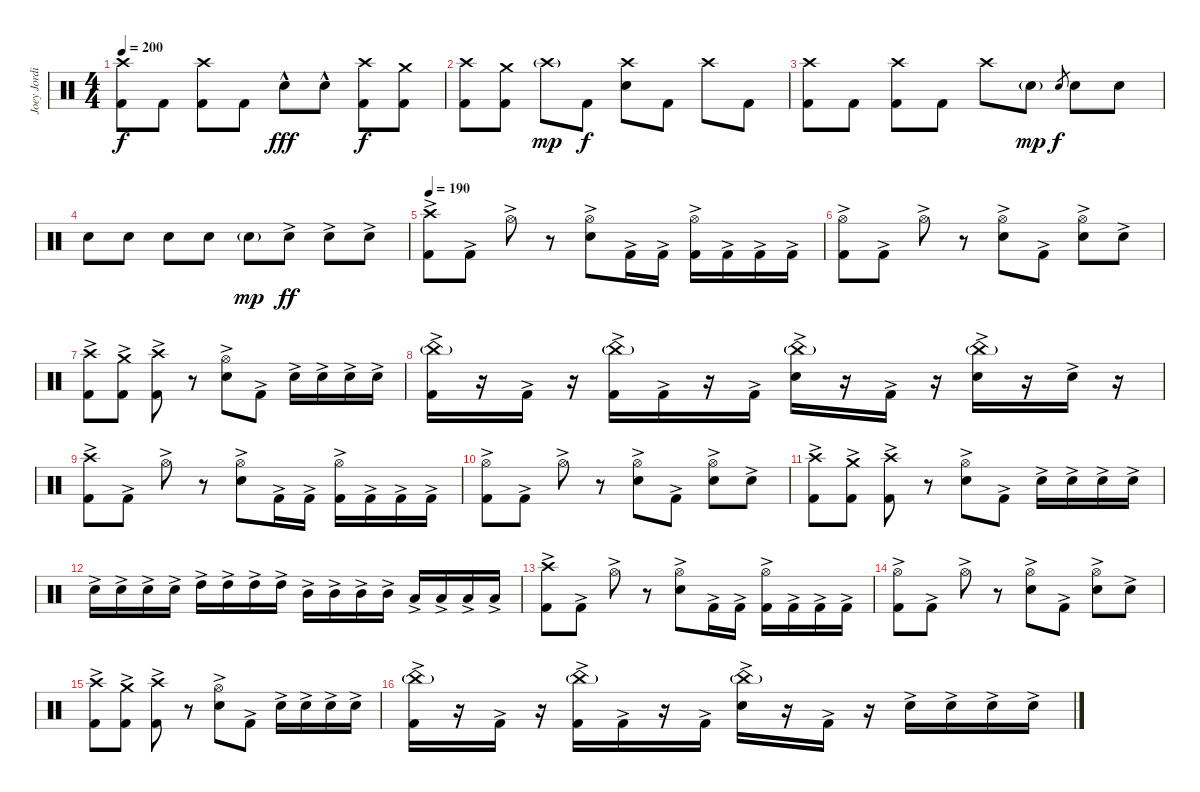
\track ("Joey Jordison" "Joey Jordi") {instrument percussion}
\staff {score}
\articulation defaults
\ts (4 4)
\tempo 200
\clef neutral
\ks c
("Crash high (hit)" "Kick (hit) 2").8{dy f} "Kick (hit) 2".8 ("Crash high (hit)" "Kick (hit) 2").8 "Kick (hit) 2".8 "Electric Snare (hit)"{hac}.8{dy fff} "Electric Snare (hit)"{hac}.8 ("Crash high (hit)" "Kick (hit) 2").8{dy f} ("Crash medium (hit)" "Kick (hit) 2").8 |
("Crash high (hit)" "Kick (hit) 2").8 ("Crash medium (hit)" "Kick (hit) 2").8 "Crash high (hit)"{g}.8{dy mp} "Kick (hit) 2".8{dy f} ("Crash high (hit)" "Electric Snare (hit)").8 "Kick (hit) 2".8 "Crash high (hit)".8 "Kick (hit) 2".8 |
("Crash high (hit)" "Kick (hit) 2").8 "Kick (hit) 2".8 ("Crash high (hit)" "Kick (hit) 2").8 "Kick (hit) 2".8 "Crash high (hit)".8 "Electric Snare (hit)"{g}.8{dy mp} "Electric Snare (hit)".8{gr dy f} "Electric Snare (hit)".8 "Electric Snare (hit)".8 |
"Electric Snare (hit)".8 "Electric Snare (hit)".8 "Electric Snare (hit)".8 "Electric Snare (hit)".8 "Electric Snare (hit)"{g}.8{dy mp} "Electric Snare (hit)"{ac}.8{dy ff} "Electric Snare (hit)"{ac}.8 "Electric Snare (hit)"{ac}.8 |
\tempo 190
("Crash high (hit)"{ac} "Kick (hit) 2"{ac}).8 "Kick (hit) 2"{ac}.8 "Hi-Hat (open)"{ac}.8 r.8 ("Hi-Hat (open)"{ac} "Electric Snare (hit)"{ac}).8 "Kick (hit) 2"{ac}.16 "Kick (hit) 2"{ac}.16 ("Hi-Hat (open)"{ac} "Kick (hit) 2"{ac}).16 "Kick (hit) 2"{ac}.16 "Kick (hit) 2"{ac}.16 "Kick (hit) 2"{ac}.16 |
("Hi-Hat (open)"{ac} "Kick (hit) 2"{ac}).8 "Kick (hit) 2"{ac}.8 "Hi-Hat (open)"{ac}.8 r.8 ("Hi-Hat (open)"{ac} "Electric Snare (hit)"{ac}).8 "Kick (hit) 2"{ac}.8 ("Hi-Hat (open)"{ac} "Electric Snare (hit)"{ac}).8 "Electric Snare (hit)"{ac}.8 |
("Crash high (hit)"{ac} "Kick (hit) 2"{ac}).8 ("Crash medium (hit)"{ac} "Kick (hit) 2"{ac}).8 ("Crash high (hit)"{ac} "Kick (hit) 2"{ac}).8 r.8 ("Hi-Hat (open)"{ac} "Electric Snare (hit)"{ac}).8 "Kick (hit) 2"{ac}.8 "Electric Snare (hit)"{ac}.16 "Electric Snare (hit)"{ac}.16 "Electric Snare (hit)"{ac}.16 "Electric Snare (hit)"{ac}.16 |
("China (hit)"{g} "Kick (hit) 2"{ac}).16 r.16 "Kick (hit) 2"{ac}.16 r.16 ("China (hit)"{g} "Kick (hit) 2"{ac}).16 "Kick (hit) 2"{ac}.16 r.16 "Kick (hit) 2"{ac}.16 ("China (hit)"{g} "Electric Snare (hit)"{ac}).16 r.16 "Kick (hit) 2"{ac}.16 r.16 ("China (hit)"{g} "Electric Snare (hit)"{ac}).16 r.16 "Electric Snare (hit)"{ac}.16 r.16 |
("Crash high (hit)"{ac} "Kick (hit) 2"{ac}).8 "Kick (hit) 2"{ac}.8 "Hi-Hat (open)"{ac}.8 r.8 ("Hi-Hat (open)"{ac} "Electric Snare (hit)"{ac}).8 "Kick (hit) 2"{ac}.16 "Kick (hit) 2"{ac}.16 ("Hi-Hat (open)"{ac} "Kick (hit) 2"{ac}).16 "Kick (hit) 2"{ac}.16 "Kick (hit) 2"{ac}.16 "Kick (hit) 2"{ac}.16 |
("Hi-Hat (open)"{ac} "Kick (hit) 2"{ac}).8 "Kick (hit) 2"{ac}.8 "Hi-Hat (open)"{ac}.8 r.8 ("Hi-Hat (open)"{ac} "Electric Snare (hit)"{ac}).8 "Kick (hit) 2"{ac}.8 ("Hi-Hat (open)"{ac} "Electric Snare (hit)"{ac}).8 "Electric Snare (hit)"{ac}.8 |
("Crash high (hit)"{ac} "Kick (hit) 2"{ac}).8 ("Crash medium (hit)"{ac} "Kick (hit) 2"{ac}).8 ("Crash high (hit)"{ac} "Kick (hit) 2"{ac}).8 r.8 ("Hi-Hat (open)"{ac} "Electric Snare (hit)"{ac}).8 "Kick (hit) 2"{ac}.8 "Electric Snare (hit)"{ac}.16 "Electric Snare (hit)"{ac}.16 "Electric Snare (hit)"{ac}.16 "Electric Snare (hit)"{ac}.16 |
"Electric Snare (hit)"{ac}.16 "Electric Snare (hit)"{ac}.16 "Electric Snare (hit)"{ac}.16 "Electric Snare (hit)"{ac}.16 "High Tom (hit)"{ac}.16 "High Tom (hit)"{ac}.16 "High Tom (hit)"{ac}.16 "High Tom (hit)"{ac}.16 "Mid Tom (hit)"{ac}.16 "Mid Tom (hit)"{ac}.16 "Mid Tom (hit)"{ac}.16 "Mid Tom (hit)"{ac}.16 "Low Tom (hit)"{ac}.16 "Low Tom (hit)"{ac}.16 "Low Tom (hit)"{ac}.16 "Low Tom (hit)"{ac}.16 |
("Crash high (hit)"{ac} "Kick (hit) 2"{ac}).8 "Kick (hit) 2"{ac}.8 "Hi-Hat (open)"{ac}.8 r.8 ("Hi-Hat (open)"{ac} "Electric Snare (hit)"{ac}).8 "Kick (hit) 2"{ac}.16 "Kick (hit) 2"{ac}.16 ("Hi-Hat (open)"{ac} "Kick (hit) 2"{ac}).16 "Kick (hit) 2"{ac}.16 "Kick (hit) 2"{ac}.16 "Kick (hit) 2"{ac}.16 |
("Hi-Hat (open)"{ac} "Kick (hit) 2"{ac}).8 "Kick (hit) 2"{ac}.8 "Hi-Hat (open)"{ac}.8 r.8 ("Hi-Hat (open)"{ac} "Electric Snare (hit)"{ac}).8 "Kick (hit) 2"{ac}.8 ("Hi-Hat (open)"{ac} "Electric Snare (hit)"{ac}).8 "Electric Snare (hit)"{ac}.8 |
("Crash high (hit)"{ac} "Kick (hit) 2"{ac}).8 ("Crash medium (hit)"{ac} "Kick (hit) 2"{ac}).8 ("Crash high (hit)"{ac} "Kick (hit) 2"{ac}).8 r.8 ("Hi-Hat (open)"{ac} "Electric Snare (hit)"{ac}).8 "Kick (hit) 2"{ac}.8 "Electric Snare (hit)"{ac}.16 "Electric Snare (hit)"{ac}.16 "Electric Snare (hit)"{ac}.16 "Electric Snare (hit)"{ac}.16 |
("China (hit)"{g} "Kick (hit) 2"{ac}).16 r.16 "Kick (hit) 2"{ac}.16 r.16 ("China (hit)"{g} "Kick (hit) 2"{ac}).16 "Kick (hit) 2"{ac}.16 r.16 "Kick (hit) 2"{ac}.16 ("China (hit)"{g} "Electric Snare (hit)"{ac}).16 r.16 "Kick (hit) 2"{ac}.16 r.16 "Electric Snare (hit)"{ac}.16 "Electric Snare (hit)"{ac}.16 "Electric Snare (hit)"{ac}.16 "Electric Snare (hit)"{ac}.16
